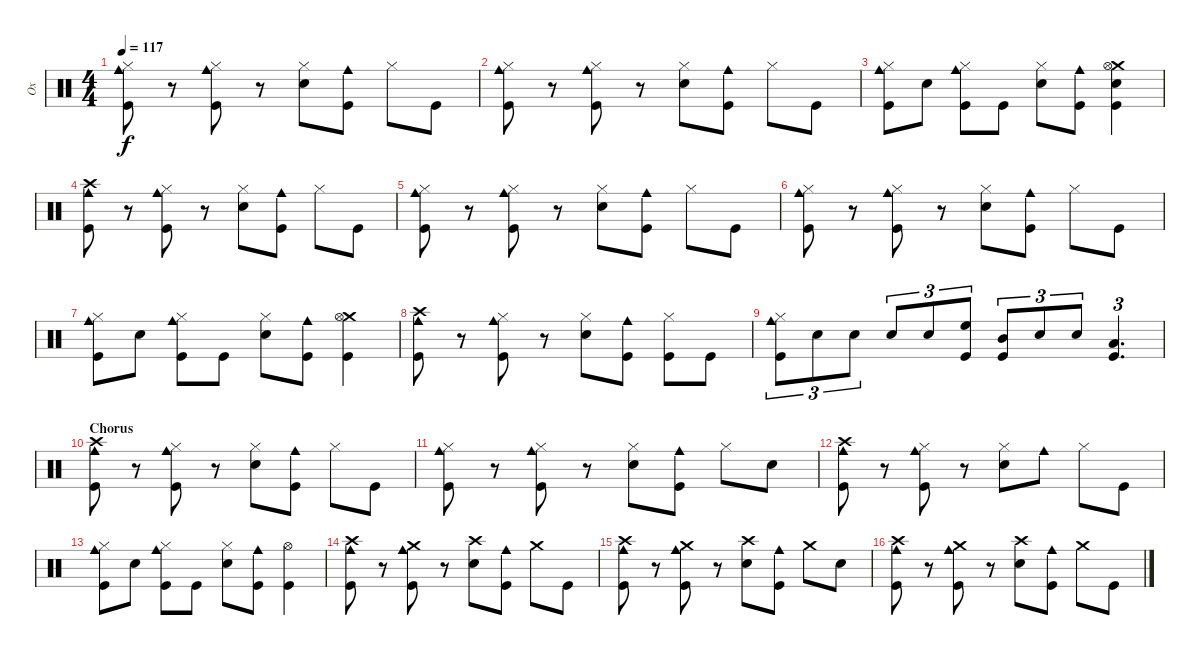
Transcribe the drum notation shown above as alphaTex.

\track ("Ox" "Ox") {instrument percussion}
\staff {score}
\articulation defaults
\ts (4 4)
\tempo 117
\clef neutral
\ks c
("Kick (hit)" "Hi-Hat (closed)" "Cowbell medium (hit)").8{dy f} r.8 ("Kick (hit)" "Hi-Hat (closed)" "Cowbell medium (hit)").8 r.8 ("Snare (hit) 2" "Hi-Hat (closed)").8 ("Kick (hit)" "Cowbell medium (hit)").8 "Hi-Hat (closed)".8 "Kick (hit)".8 |
("Kick (hit)" "Hi-Hat (closed)" "Cowbell medium (hit)").8 r.8 ("Kick (hit)" "Hi-Hat (closed)" "Cowbell medium (hit)").8 r.8 ("Snare (hit) 2" "Hi-Hat (closed)").8 ("Kick (hit)" "Cowbell medium (hit)").8 "Hi-Hat (closed)".8 "Kick (hit)".8 |
("Kick (hit)" "Hi-Hat (closed)" "Cowbell medium (hit)").8 "Snare (hit) 2".8 ("Kick (hit)" "Hi-Hat (closed)" "Cowbell medium (hit)").8 "Kick (hit)".8 ("Snare (hit) 2" "Hi-Hat (closed)").8 ("Kick (hit)" "Cowbell medium (hit)").8 ("Crash medium (hit)" "Kick (hit)" "Hi-Hat (open)" "Snare (hit) 2").4 |
("Kick (hit)" "Crash high (hit)" "Cowbell medium (hit)").8 r.8 ("Kick (hit)" "Hi-Hat (closed)" "Cowbell medium (hit)").8 r.8 ("Snare (hit) 2" "Hi-Hat (closed)").8 ("Kick (hit)" "Cowbell medium (hit)").8 "Hi-Hat (closed)".8 "Kick (hit)".8 |
("Kick (hit)" "Hi-Hat (closed)" "Cowbell medium (hit)").8 r.8 ("Kick (hit)" "Hi-Hat (closed)" "Cowbell medium (hit)").8 r.8 ("Snare (hit) 2" "Hi-Hat (closed)").8 ("Kick (hit)" "Cowbell medium (hit)").8 "Hi-Hat (closed)".8 "Kick (hit)".8 |
("Kick (hit)" "Hi-Hat (closed)" "Cowbell medium (hit)").8 r.8 ("Kick (hit)" "Hi-Hat (closed)" "Cowbell medium (hit)").8 r.8 ("Snare (hit) 2" "Hi-Hat (closed)").8 ("Kick (hit)" "Cowbell medium (hit)").8 "Hi-Hat (closed)".8 "Kick (hit)".8 |
("Kick (hit)" "Hi-Hat (closed)" "Cowbell medium (hit)").8 "Snare (hit) 2".8 ("Kick (hit)" "Hi-Hat (closed)" "Cowbell medium (hit)").8 "Kick (hit)".8 ("Snare (hit) 2" "Hi-Hat (closed)").8 ("Kick (hit)" "Cowbell medium (hit)").8 ("Crash medium (hit)" "Kick (hit)" "Hi-Hat (open)").4 |
("Kick (hit)" "Crash high (hit)" "Cowbell medium (hit)").8 r.8 ("Kick (hit)" "Hi-Hat (closed)" "Cowbell medium (hit)").8 r.8 ("Snare (hit) 2" "Hi-Hat (closed)").8 ("Kick (hit)" "Cowbell medium (hit)").8 ("Hi-Hat (closed)" "Kick (hit)").8 "Kick (hit)".8 |
("Kick (hit)" "Cowbell medium (hit)" "Hi-Hat (closed)").8{tu (3 2)} "Snare (hit) 2".8{tu (3 2)} "Snare (hit) 2".8{tu (3 2)} "Snare (hit) 2".8{tu (3 2)} "Snare (hit) 2".8{tu (3 2)} ("High Floor Tom (hit)" "Kick (hit)").8{tu (3 2)} ("Mid Tom (hit)" "Kick (hit)").8{tu (3 2)} "Snare (hit) 2".8{tu (3 2)} "Snare (hit) 2".8{tu (3 2)} ("Low Floor Tom (hit)" "Kick (hit)").4{d tu (3 2)} |
\section ("" "Chorus")
("Kick (hit)" "Crash high (hit)" "Cowbell medium (hit)").8 r.8 ("Kick (hit)" "Hi-Hat (closed)" "Cowbell medium (hit)").8 r.8 ("Snare (hit) 2" "Hi-Hat (closed)").8 ("Kick (hit)" "Cowbell medium (hit)").8 "Hi-Hat (closed)".8 "Kick (hit)".8 |
("Kick (hit)" "Hi-Hat (closed)" "Cowbell medium (hit)").8 r.8 ("Kick (hit)" "Hi-Hat (closed)" "Cowbell medium (hit)").8 r.8 ("Snare (hit) 2" "Hi-Hat (closed)").8 ("Kick (hit)" "Cowbell medium (hit)").8 "Hi-Hat (closed)".8 "Snare (hit) 2".8 |
("Kick (hit)" "Cowbell medium (hit)" "Crash high (hit)").8 r.8 ("Kick (hit)" "Hi-Hat (closed)" "Cowbell medium (hit)").8 r.8 ("Snare (hit) 2" "Hi-Hat (closed)").8 "Cowbell medium (hit)".8 "Hi-Hat (closed)".8 "Kick (hit)".8 |
("Kick (hit)" "Hi-Hat (closed)" "Cowbell medium (hit)").8 "Snare (hit) 2".8 ("Kick (hit)" "Hi-Hat (closed)" "Cowbell medium (hit)").8 "Kick (hit)".8 ("Snare (hit) 2" "Hi-Hat (closed)").8 ("Kick (hit)" "Cowbell medium (hit)").8 ("Kick (hit)" "Hi-Hat (open)").4 |
("Kick (hit)" "Crash high (hit)" "Cowbell medium (hit)").8 r.8 ("Kick (hit)" "Crash medium (hit)" "Cowbell medium (hit)").8 r.8 ("Snare (hit) 2" "Crash high (hit)").8 ("Kick (hit)" "Cowbell medium (hit)").8 "Crash medium (hit)".8 "Kick (hit)".8 |
("Kick (hit)" "Crash high (hit)" "Cowbell medium (hit)").8 r.8 ("Kick (hit)" "Crash medium (hit)" "Cowbell medium (hit)").8 r.8 ("Snare (hit) 2" "Crash high (hit)").8 ("Kick (hit)" "Cowbell medium (hit)").8 "Crash medium (hit)".8 "Snare (hit) 2".8 |
("Kick (hit)" "Crash high (hit)" "Cowbell medium (hit)").8 r.8 ("Kick (hit)" "Crash medium (hit)" "Cowbell medium (hit)").8 r.8 ("Snare (hit) 2" "Crash high (hit)").8 ("Kick (hit)" "Cowbell medium (hit)").8 "Crash medium (hit)".8 "Kick (hit)".8
